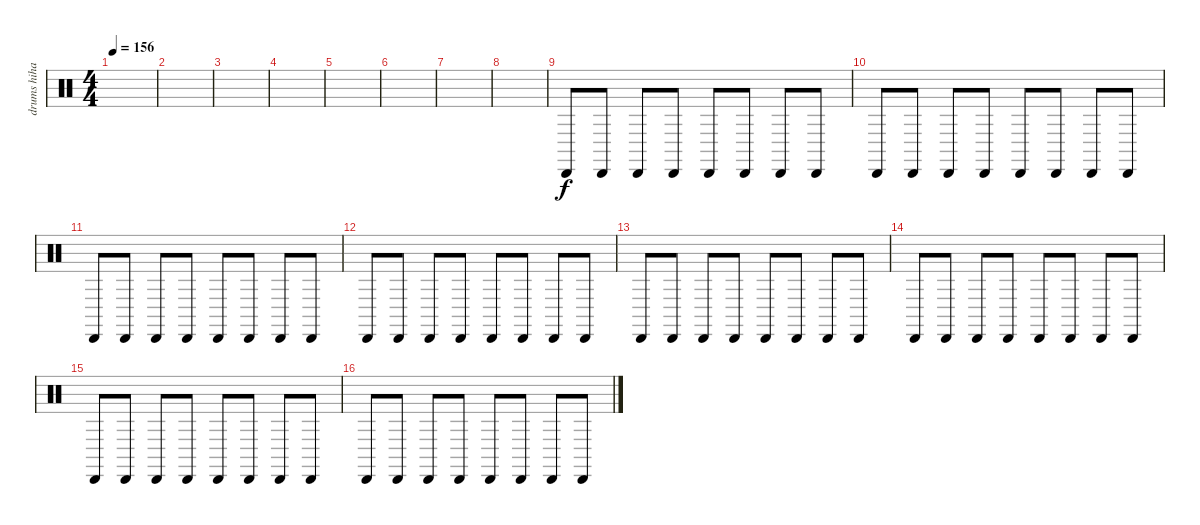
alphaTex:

\track ("drums hihats" "drums hiha") {instrument percussion}
\staff {score}
\articulation defaults
\ts (4 4)
\tempo 156
\clef neutral
\ks c
|
|
|
|
|
|
|
|
"Cabasa (hit)".8 "Cabasa (hit)".8 "Cabasa (hit)".8 "Cabasa (hit)".8 "Cabasa (hit)".8 "Cabasa (hit)".8 "Cabasa (hit)".8 "Cabasa (hit)".8 |
"Cabasa (hit)".8 "Cabasa (hit)".8 "Cabasa (hit)".8 "Cabasa (hit)".8 "Cabasa (hit)".8 "Cabasa (hit)".8 "Cabasa (hit)".8 "Cabasa (hit)".8 |
"Cabasa (hit)".8 "Cabasa (hit)".8 "Cabasa (hit)".8 "Cabasa (hit)".8 "Cabasa (hit)".8 "Cabasa (hit)".8 "Cabasa (hit)".8 "Cabasa (hit)".8 |
"Cabasa (hit)".8 "Cabasa (hit)".8 "Cabasa (hit)".8 "Cabasa (hit)".8 "Cabasa (hit)".8 "Cabasa (hit)".8 "Cabasa (hit)".8 "Cabasa (hit)".8 |
"Cabasa (hit)".8 "Cabasa (hit)".8 "Cabasa (hit)".8 "Cabasa (hit)".8 "Cabasa (hit)".8 "Cabasa (hit)".8 "Cabasa (hit)".8 "Cabasa (hit)".8 |
"Cabasa (hit)".8 "Cabasa (hit)".8 "Cabasa (hit)".8 "Cabasa (hit)".8 "Cabasa (hit)".8 "Cabasa (hit)".8 "Cabasa (hit)".8 "Cabasa (hit)".8 |
"Cabasa (hit)".8 "Cabasa (hit)".8 "Cabasa (hit)".8 "Cabasa (hit)".8 "Cabasa (hit)".8 "Cabasa (hit)".8 "Cabasa (hit)".8 "Cabasa (hit)".8 |
"Cabasa (hit)".8 "Cabasa (hit)".8 "Cabasa (hit)".8 "Cabasa (hit)".8 "Cabasa (hit)".8 "Cabasa (hit)".8 "Cabasa (hit)".8 "Cabasa (hit)".8
